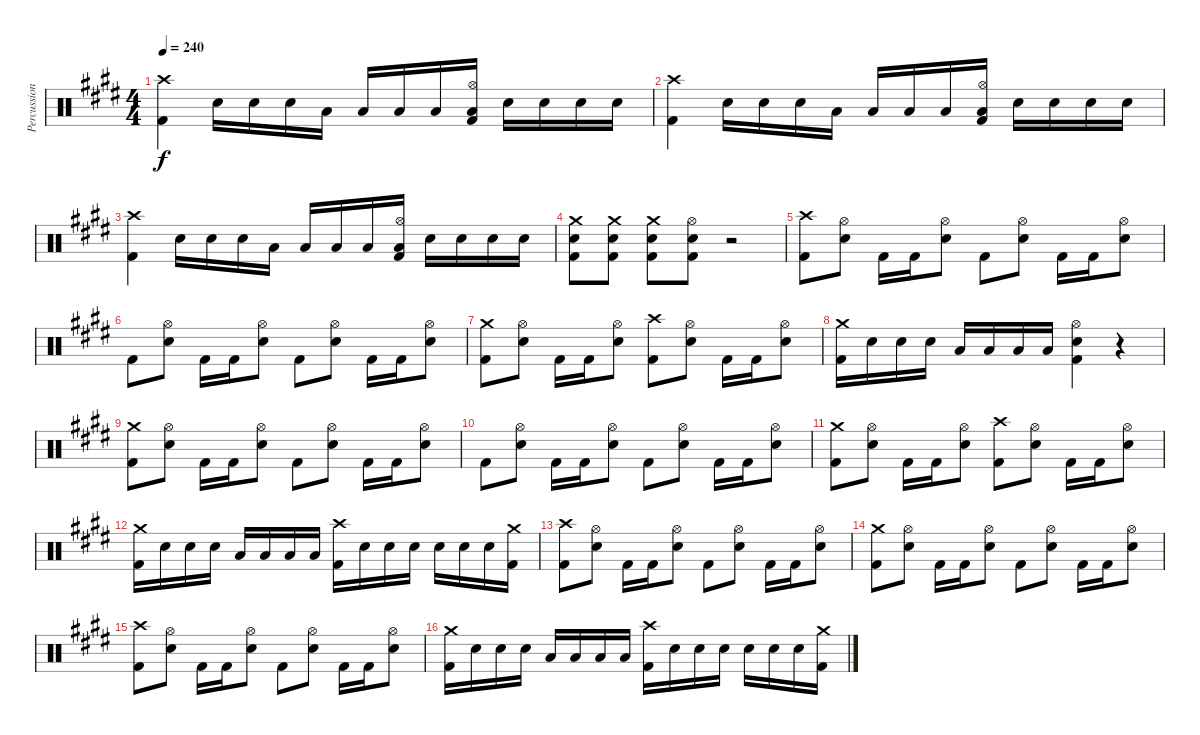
\track ("Percussion" "Percussion") {instrument percussion}
\staff {score}
\articulation defaults
\ts (4 4)
\tempo 240
\clef neutral
\ks e
("Kick (hit) 2" "Crash high (hit)").4{dy f} "Snare (hit) 2".16 "Snare (hit) 2".16 "Snare (hit) 2".16 "Low Floor Tom (hit)".16 "Low Floor Tom (hit)".16 "Low Floor Tom (hit)".16 "Low Floor Tom (hit)".16 ("Hi-Hat (open)" "Low Tom (hit)" "Kick (hit) 2").16 "Snare (hit) 2".16 "Snare (hit) 2".16 "Snare (hit) 2".16 "Snare (hit) 2".16 |
("Kick (hit) 2" "Crash high (hit)").4 "Snare (hit) 2".16 "Snare (hit) 2".16 "Snare (hit) 2".16 "Low Floor Tom (hit)".16 "Low Floor Tom (hit)".16 "Low Floor Tom (hit)".16 "Low Floor Tom (hit)".16 ("Hi-Hat (open)" "Low Tom (hit)" "Kick (hit) 2").16 "Snare (hit) 2".16 "Snare (hit) 2".16 "Snare (hit) 2".16 "Snare (hit) 2".16 |
("Kick (hit) 2" "Crash high (hit)").4 "Snare (hit) 2".16 "Snare (hit) 2".16 "Snare (hit) 2".16 "Low Floor Tom (hit)".16 "Low Floor Tom (hit)".16 "Low Floor Tom (hit)".16 "Low Floor Tom (hit)".16 ("Hi-Hat (open)" "Low Tom (hit)" "Kick (hit) 2").16 "Snare (hit) 2".16 "Snare (hit) 2".16 "Snare (hit) 2".16 "Snare (hit) 2".16 |
("Crash medium (hit)" "Snare (hit) 2" "Kick (hit) 2").8 ("Crash medium (hit)" "Snare (hit) 2" "Kick (hit) 2").8 ("Crash medium (hit)" "Snare (hit) 2" "Kick (hit) 2").8 ("Hi-Hat (open)" "Snare (hit) 2" "Kick (hit) 2").8 r.2 |
("Crash high (hit)" "Kick (hit) 2").8 ("Hi-Hat (open)" "Snare (hit) 2").8 "Kick (hit) 2".16 "Kick (hit) 2".16 ("Hi-Hat (open)" "Snare (hit) 2").8 "Kick (hit) 2".8 ("Hi-Hat (open)" "Snare (hit) 2").8 "Kick (hit) 2".16 "Kick (hit) 2".16 ("Hi-Hat (open)" "Snare (hit) 2").8 |
"Kick (hit) 2".8 ("Hi-Hat (open)" "Snare (hit) 2").8 "Kick (hit) 2".16 "Kick (hit) 2".16 ("Hi-Hat (open)" "Snare (hit) 2").8 "Kick (hit) 2".8 ("Hi-Hat (open)" "Snare (hit) 2").8 "Kick (hit) 2".16 "Kick (hit) 2".16 ("Hi-Hat (open)" "Snare (hit) 2").8 |
("Crash medium (hit)" "Kick (hit) 2").8 ("Hi-Hat (open)" "Snare (hit) 2").8 "Kick (hit) 2".16 "Kick (hit) 2".16 ("Hi-Hat (open)" "Snare (hit) 2").8 ("Crash high (hit)" "Kick (hit) 2").8 ("Hi-Hat (open)" "Snare (hit) 2").8 "Kick (hit) 2".16 "Kick (hit) 2".16 ("Hi-Hat (open)" "Snare (hit) 2").8 |
("Crash medium (hit)" "Kick (hit) 2").16 "Snare (hit) 2".16 "Snare (hit) 2".16 "Snare (hit) 2".16 "Low Tom (hit)".16 "Low Tom (hit)".16 "Low Floor Tom (hit)".16 "Low Floor Tom (hit)".16 ("Hi-Hat (open)" "Snare (hit) 2" "Kick (hit) 2").4 r.4 |
("Crash medium (hit)" "Kick (hit) 2").8 ("Hi-Hat (open)" "Snare (hit) 2").8 "Kick (hit) 2".16 "Kick (hit) 2".16 ("Hi-Hat (open)" "Snare (hit) 2").8 "Kick (hit) 2".8 ("Hi-Hat (open)" "Snare (hit) 2").8 "Kick (hit) 2".16 "Kick (hit) 2".16 ("Hi-Hat (open)" "Snare (hit) 2").8 |
"Kick (hit) 2".8 ("Hi-Hat (open)" "Snare (hit) 2").8 "Kick (hit) 2".16 "Kick (hit) 2".16 ("Hi-Hat (open)" "Snare (hit) 2").8 "Kick (hit) 2".8 ("Hi-Hat (open)" "Snare (hit) 2").8 "Kick (hit) 2".16 "Kick (hit) 2".16 ("Hi-Hat (open)" "Snare (hit) 2").8 |
("Crash medium (hit)" "Kick (hit) 2").8 ("Hi-Hat (open)" "Snare (hit) 2").8 "Kick (hit) 2".16 "Kick (hit) 2".16 ("Hi-Hat (open)" "Snare (hit) 2").8 ("Crash high (hit)" "Kick (hit) 2").8 ("Hi-Hat (open)" "Snare (hit) 2").8 "Kick (hit) 2".16 "Kick (hit) 2".16 ("Hi-Hat (open)" "Snare (hit) 2").8 |
("Crash medium (hit)" "Kick (hit) 2").16 "Snare (hit) 2".16 "Snare (hit) 2".16 "Snare (hit) 2".16 "Low Tom (hit)".16 "Low Tom (hit)".16 "Low Floor Tom (hit)".16 "Low Floor Tom (hit)".16 ("Crash high (hit)" "Kick (hit) 2").16 "Snare (hit) 2".16 "Snare (hit) 2".16 "Snare (hit) 2".16 "Snare (hit) 2".16 "Snare (hit) 2".16 "Snare (hit) 2".16 ("Crash medium (hit)" "Kick (hit) 2").16 |
("Crash high (hit)" "Kick (hit) 2").8 ("Hi-Hat (open)" "Snare (hit) 2").8 "Kick (hit) 2".16 "Kick (hit) 2".16 ("Hi-Hat (open)" "Snare (hit) 2").8 "Kick (hit) 2".8 ("Hi-Hat (open)" "Snare (hit) 2").8 "Kick (hit) 2".16 "Kick (hit) 2".16 ("Hi-Hat (open)" "Snare (hit) 2").8 |
("Crash medium (hit)" "Kick (hit) 2").8 ("Hi-Hat (open)" "Snare (hit) 2").8 "Kick (hit) 2".16 "Kick (hit) 2".16 ("Hi-Hat (open)" "Snare (hit) 2").8 "Kick (hit) 2".8 ("Hi-Hat (open)" "Snare (hit) 2").8 "Kick (hit) 2".16 "Kick (hit) 2".16 ("Hi-Hat (open)" "Snare (hit) 2").8 |
("Crash high (hit)" "Kick (hit) 2").8 ("Hi-Hat (open)" "Snare (hit) 2").8 "Kick (hit) 2".16 "Kick (hit) 2".16 ("Hi-Hat (open)" "Snare (hit) 2").8 "Kick (hit) 2".8 ("Hi-Hat (open)" "Snare (hit) 2").8 "Kick (hit) 2".16 "Kick (hit) 2".16 ("Hi-Hat (open)" "Snare (hit) 2").8 |
("Crash medium (hit)" "Kick (hit) 2").16 "Snare (hit) 2".16 "Snare (hit) 2".16 "Snare (hit) 2".16 "Low Tom (hit)".16 "Low Tom (hit)".16 "Low Floor Tom (hit)".16 "Low Floor Tom (hit)".16 ("Crash high (hit)" "Kick (hit) 2").16 "Snare (hit) 2".16 "Snare (hit) 2".16 "Snare (hit) 2".16 "Snare (hit) 2".16 "Snare (hit) 2".16 "Snare (hit) 2".16 ("Crash medium (hit)" "Kick (hit) 2").16
